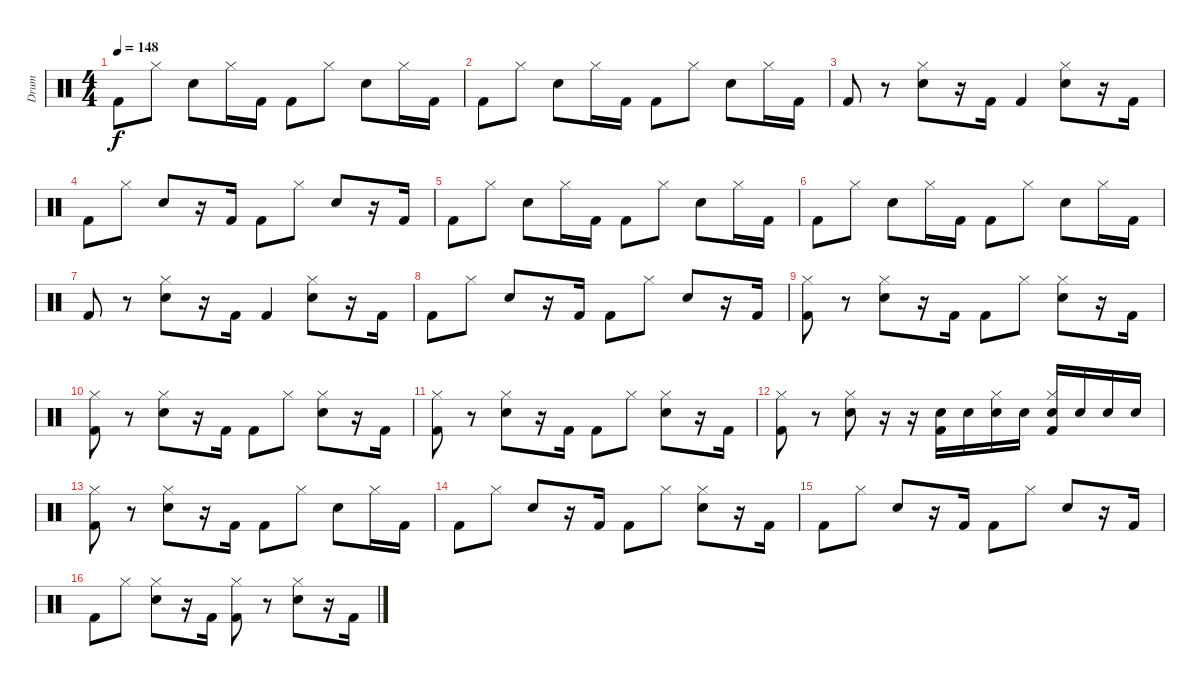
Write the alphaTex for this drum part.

\track ("Drum" "Drum") {instrument percussion}
\staff {score}
\articulation defaults
\ts (4 4)
\tempo 148
\clef neutral
\ks c "Kick (hit) 2".8{dy f} "Hi-Hat (closed)".8 "Electric Snare (hit)".8 "Hi-Hat (closed)".16 "Kick (hit) 2".16 "Kick (hit) 2".8 "Hi-Hat (closed)".8 "Electric Snare (hit)".8 "Hi-Hat (closed)".16 "Kick (hit) 2".16
|
"Kick (hit) 2".8 "Hi-Hat (closed)".8 "Electric Snare (hit)".8 "Hi-Hat (closed)".16 "Kick (hit) 2".16 "Kick (hit) 2".8 "Hi-Hat (closed)".8 "Electric Snare (hit)".8 "Hi-Hat (closed)".16 "Kick (hit) 2".16 |
"Kick (hit) 2".8 r.8 ("Hi-Hat (closed)" "Electric Snare (hit)").8 r.16 "Kick (hit) 2".16 "Kick (hit) 2".4 ("Hi-Hat (closed)" "Electric Snare (hit)").8 r.16 "Kick (hit) 2".16 |
"Kick (hit) 2".8 "Hi-Hat (closed)".8 "Electric Snare (hit)".8 r.16 "Kick (hit) 2".16 "Kick (hit) 2".8 "Hi-Hat (closed)".8 "Electric Snare (hit)".8 r.16 "Kick (hit) 2".16 |
"Kick (hit) 2".8 "Hi-Hat (closed)".8 "Electric Snare (hit)".8 "Hi-Hat (closed)".16 "Kick (hit) 2".16 "Kick (hit) 2".8 "Hi-Hat (closed)".8 "Electric Snare (hit)".8 "Hi-Hat (closed)".16 "Kick (hit) 2".16 |
"Kick (hit) 2".8 "Hi-Hat (closed)".8 "Electric Snare (hit)".8 "Hi-Hat (closed)".16 "Kick (hit) 2".16 "Kick (hit) 2".8 "Hi-Hat (closed)".8 "Electric Snare (hit)".8 "Hi-Hat (closed)".16 "Kick (hit) 2".16 |
"Kick (hit) 2".8 r.8 ("Hi-Hat (closed)" "Electric Snare (hit)").8 r.16 "Kick (hit) 2".16 "Kick (hit) 2".4 ("Hi-Hat (closed)" "Electric Snare (hit)").8 r.16 "Kick (hit) 2".16 |
"Kick (hit) 2".8 "Hi-Hat (closed)".8 "Electric Snare (hit)".8 r.16 "Kick (hit) 2".16 "Kick (hit) 2".8 "Hi-Hat (closed)".8 "Electric Snare (hit)".8 r.16 "Kick (hit) 2".16 |
("Hi-Hat (closed)" "Kick (hit) 2").8 r.8 ("Hi-Hat (closed)" "Electric Snare (hit)").8 r.16 "Kick (hit) 2".16 "Kick (hit) 2".8 "Hi-Hat (closed)".8 ("Hi-Hat (closed)" "Electric Snare (hit)").8 r.16 "Kick (hit) 2".16 |
("Hi-Hat (closed)" "Kick (hit) 2").8 r.8 ("Hi-Hat (closed)" "Electric Snare (hit)").8 r.16 "Kick (hit) 2".16 "Kick (hit) 2".8 "Hi-Hat (closed)".8 ("Hi-Hat (closed)" "Electric Snare (hit)").8 r.16 "Kick (hit) 2".16 |
("Hi-Hat (closed)" "Kick (hit) 2").8 r.8 ("Hi-Hat (closed)" "Electric Snare (hit)").8 r.16 "Kick (hit) 2".16 "Kick (hit) 2".8 "Hi-Hat (closed)".8 ("Hi-Hat (closed)" "Electric Snare (hit)").8 r.16 "Kick (hit) 2".16 |
("Hi-Hat (closed)" "Kick (hit) 2").8 r.8 ("Hi-Hat (closed)" "Electric Snare (hit)").8 r.16 r.16 ("Electric Snare (hit)" "Kick (hit) 2").16 "Electric Snare (hit)".16 ("Hi-Hat (closed)" "Electric Snare (hit)").16 "Electric Snare (hit)".16 ("Hi-Hat (closed)" "Electric Snare (hit)" "Kick (hit) 2").16 "Electric Snare (hit)".16 "Electric Snare (hit)".16 "Electric Snare (hit)".16 |
("Hi-Hat (closed)" "Kick (hit) 2").8 r.8 ("Hi-Hat (closed)" "Electric Snare (hit)").8 r.16 "Kick (hit) 2".16 "Kick (hit) 2".8 "Hi-Hat (closed)".8 "Electric Snare (hit)".8 "Hi-Hat (closed)".16 "Kick (hit) 2".16 |
"Kick (hit) 2".8 "Hi-Hat (closed)".8 "Electric Snare (hit)".8 r.16 "Kick (hit) 2".16 "Kick (hit) 2".8 "Hi-Hat (closed)".8 ("Hi-Hat (closed)" "Electric Snare (hit)").8 r.16 "Kick (hit) 2".16 |
"Kick (hit) 2".8 "Hi-Hat (closed)".8 "Electric Snare (hit)".8 r.16 "Kick (hit) 2".16 "Kick (hit) 2".8 "Hi-Hat (closed)".8 "Electric Snare (hit)".8 r.16 "Kick (hit) 2".16 |
"Kick (hit) 2".8 "Hi-Hat (closed)".8 ("Hi-Hat (closed)" "Electric Snare (hit)").8 r.16 "Kick (hit) 2".16 ("Hi-Hat (closed)" "Kick (hit) 2").8 r.8 ("Hi-Hat (closed)" "Electric Snare (hit)").8 r.16 "Kick (hit) 2".16
